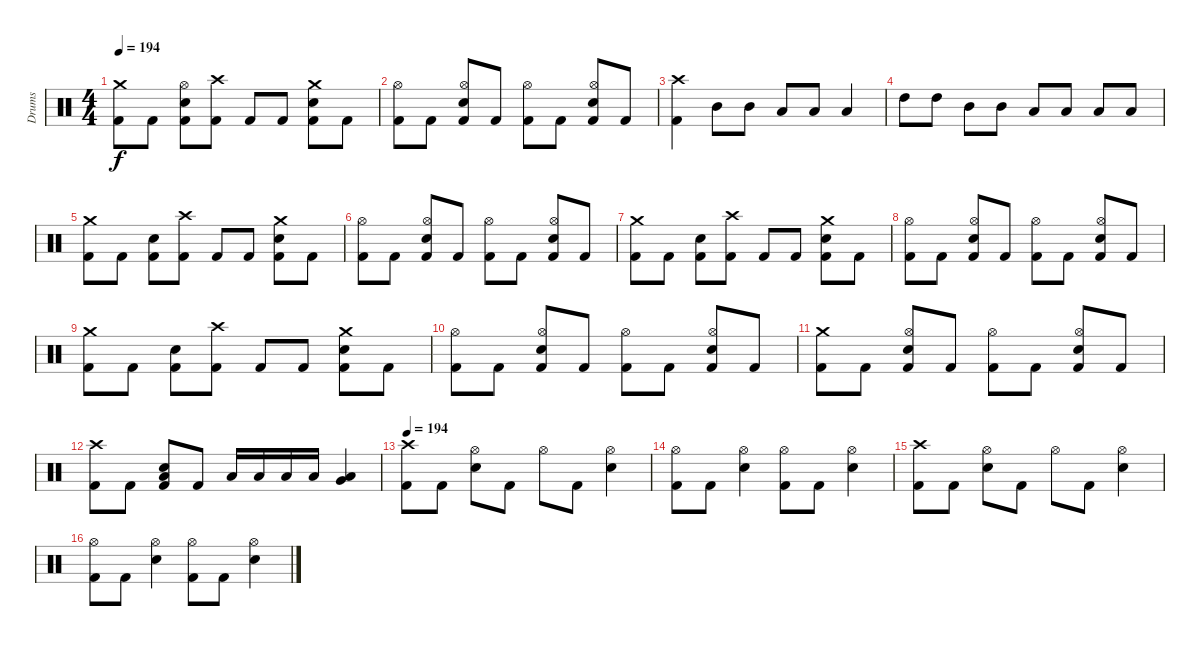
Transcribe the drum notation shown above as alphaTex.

\track ("Drums" "Drums") {instrument percussion}
\staff {score}
\articulation defaults
\ts (4 4)
\tempo 194
\clef neutral
\ks c
("Crash medium (hit)" "Kick (hit) 2").8{dy f} "Kick (hit) 2".8 ("Hi-Hat (open)" "Electric Snare (hit)" "Kick (hit) 2").8 ("Crash high (hit)" "Kick (hit) 2").8 "Kick (hit) 2".8 "Kick (hit) 2".8 ("Crash medium (hit)" "Electric Snare (hit)" "Kick (hit) 2").8 "Kick (hit) 2".8 |
("Hi-Hat (open)" "Kick (hit) 2").8 "Kick (hit) 2".8 ("Hi-Hat (open)" "Electric Snare (hit)" "Kick (hit) 2").8 "Kick (hit) 2".8 ("Hi-Hat (open)" "Kick (hit) 2").8 "Kick (hit) 2".8 ("Hi-Hat (open)" "Electric Snare (hit)" "Kick (hit) 2").8 "Kick (hit) 2".8 |
("Crash high (hit)" "Kick (hit) 2").4 "Mid Tom (hit)".8 "Mid Tom (hit)".8 "Low Tom (hit)".8 "Low Tom (hit)".8 "Low Floor Tom (hit)".4 |
"High Tom (hit)".8 "High Tom (hit)".8 "Mid Tom (hit)".8 "Mid Tom (hit)".8 "Low Tom (hit)".8 "Low Tom (hit)".8 "Low Floor Tom (hit)".8 "Low Floor Tom (hit)".8 |
("Crash medium (hit)" "Kick (hit) 2").8 "Kick (hit) 2".8 ("Electric Snare (hit)" "Kick (hit) 2").8 ("Crash high (hit)" "Kick (hit) 2").8 "Kick (hit) 2".8 "Kick (hit) 2".8 ("Crash medium (hit)" "Electric Snare (hit)" "Kick (hit) 2").8 "Kick (hit) 2".8 |
("Hi-Hat (open)" "Kick (hit) 2").8 "Kick (hit) 2".8 ("Hi-Hat (open)" "Electric Snare (hit)" "Kick (hit) 2").8 "Kick (hit) 2".8 ("Hi-Hat (open)" "Kick (hit) 2").8 "Kick (hit) 2".8 ("Hi-Hat (open)" "Electric Snare (hit)" "Kick (hit) 2").8 "Kick (hit) 2".8 |
("Crash medium (hit)" "Kick (hit) 2").8 "Kick (hit) 2".8 ("Electric Snare (hit)" "Kick (hit) 2").8 ("Crash high (hit)" "Kick (hit) 2").8 "Kick (hit) 2".8 "Kick (hit) 2".8 ("Crash medium (hit)" "Electric Snare (hit)" "Kick (hit) 2").8 "Kick (hit) 2".8 |
("Hi-Hat (open)" "Kick (hit) 2").8 "Kick (hit) 2".8 ("Hi-Hat (open)" "Electric Snare (hit)" "Kick (hit) 2").8 "Kick (hit) 2".8 ("Hi-Hat (open)" "Kick (hit) 2").8 "Kick (hit) 2".8 ("Hi-Hat (open)" "Electric Snare (hit)" "Kick (hit) 2").8 "Kick (hit) 2".8 |
("Crash medium (hit)" "Kick (hit) 2").8 "Kick (hit) 2".8 ("Electric Snare (hit)" "Kick (hit) 2").8 ("Crash high (hit)" "Kick (hit) 2").8 "Kick (hit) 2".8 "Kick (hit) 2".8 ("Crash medium (hit)" "Electric Snare (hit)" "Kick (hit) 2").8 "Kick (hit) 2".8 |
("Hi-Hat (open)" "Kick (hit) 2").8 "Kick (hit) 2".8 ("Hi-Hat (open)" "Electric Snare (hit)" "Kick (hit) 2").8 "Kick (hit) 2".8 ("Hi-Hat (open)" "Kick (hit) 2").8 "Kick (hit) 2".8 ("Hi-Hat (open)" "Electric Snare (hit)" "Kick (hit) 2").8 "Kick (hit) 2".8 |
("Crash medium (hit)" "Kick (hit) 2").8 "Kick (hit) 2".8 ("Hi-Hat (open)" "Electric Snare (hit)" "Kick (hit) 2").8 "Kick (hit) 2".8 ("Hi-Hat (open)" "Kick (hit) 2").8 "Kick (hit) 2".8 ("Hi-Hat (open)" "Electric Snare (hit)" "Kick (hit) 2").8 "Kick (hit) 2".8 |
("Crash high (hit)" "Kick (hit) 2").8 "Kick (hit) 2".8 ("Low Floor Tom (hit)" "Electric Snare (hit)" "Kick (hit) 2").8 "Kick (hit) 2".8 "Low Tom (hit)".16 "Low Tom (hit)".16 "Low Tom (hit)".16 "Low Tom (hit)".16 ("Very Low Tom (hit)" "Low Floor Tom (hit)").4 |
\tempo 194
("Crash high (hit)" "Kick (hit) 2").8 "Kick (hit) 2".8 ("Hi-Hat (open)" "Electric Snare (hit)").8 "Kick (hit) 2".8 "Hi-Hat (open)".8 "Kick (hit) 2".8 ("Hi-Hat (open)" "Electric Snare (hit)").4 |
("Hi-Hat (open)" "Kick (hit) 2").8 "Kick (hit) 2".8 ("Hi-Hat (open)" "Electric Snare (hit)").4 ("Hi-Hat (open)" "Kick (hit) 2").8 "Kick (hit) 2".8 ("Hi-Hat (open)" "Electric Snare (hit)").4 |
("Crash high (hit)" "Kick (hit) 2").8 "Kick (hit) 2".8 ("Hi-Hat (open)" "Electric Snare (hit)").8 "Kick (hit) 2".8 "Hi-Hat (open)".8 "Kick (hit) 2".8 ("Hi-Hat (open)" "Electric Snare (hit)").4 |
("Hi-Hat (open)" "Kick (hit) 2").8 "Kick (hit) 2".8 ("Hi-Hat (open)" "Electric Snare (hit)").4 ("Hi-Hat (open)" "Kick (hit) 2").8 "Kick (hit) 2".8 ("Hi-Hat (open)" "Electric Snare (hit)").4
